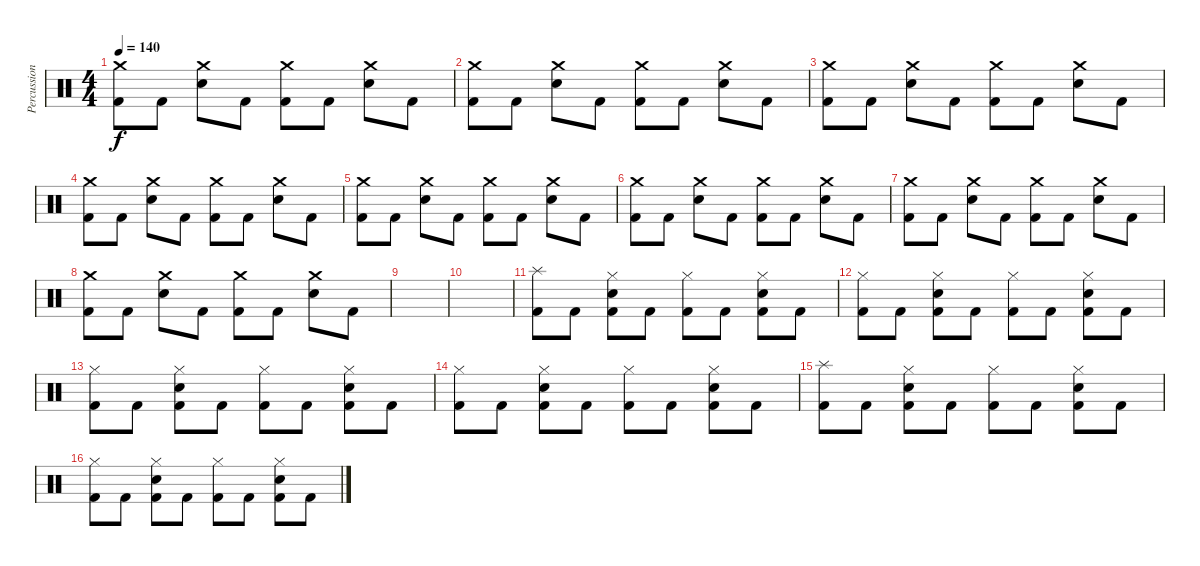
\track ("Percussion" "Percussion") {instrument percussion}
\staff {score}
\articulation defaults
\ts (4 4)
\tempo 140
\clef neutral
\ks c
("Crash medium (hit)" "Kick (hit) 2").8{dy f} "Kick (hit) 2".8 ("Crash medium (hit)" "Electric Snare (hit)").8 "Kick (hit) 2".8 ("Crash medium (hit)" "Kick (hit) 2").8 "Kick (hit) 2".8 ("Crash medium (hit)" "Electric Snare (hit)").8 "Kick (hit) 2".8 |
("Crash medium (hit)" "Kick (hit) 2").8 "Kick (hit) 2".8 ("Crash medium (hit)" "Electric Snare (hit)").8 "Kick (hit) 2".8 ("Crash medium (hit)" "Kick (hit) 2").8 "Kick (hit) 2".8 ("Crash medium (hit)" "Electric Snare (hit)").8 "Kick (hit) 2".8 |
("Crash medium (hit)" "Kick (hit) 2").8 "Kick (hit) 2".8 ("Crash medium (hit)" "Electric Snare (hit)").8 "Kick (hit) 2".8 ("Crash medium (hit)" "Kick (hit) 2").8 "Kick (hit) 2".8 ("Crash medium (hit)" "Electric Snare (hit)").8 "Kick (hit) 2".8 |
("Crash medium (hit)" "Kick (hit) 2").8 "Kick (hit) 2".8 ("Crash medium (hit)" "Electric Snare (hit)").8 "Kick (hit) 2".8 ("Crash medium (hit)" "Kick (hit) 2").8 "Kick (hit) 2".8 ("Crash medium (hit)" "Electric Snare (hit)").8 "Kick (hit) 2".8 |
("Crash medium (hit)" "Kick (hit) 2").8 "Kick (hit) 2".8 ("Crash medium (hit)" "Electric Snare (hit)").8 "Kick (hit) 2".8 ("Crash medium (hit)" "Kick (hit) 2").8 "Kick (hit) 2".8 ("Crash medium (hit)" "Electric Snare (hit)").8 "Kick (hit) 2".8 |
("Crash medium (hit)" "Kick (hit) 2").8 "Kick (hit) 2".8 ("Crash medium (hit)" "Electric Snare (hit)").8 "Kick (hit) 2".8 ("Crash medium (hit)" "Kick (hit) 2").8 "Kick (hit) 2".8 ("Crash medium (hit)" "Electric Snare (hit)").8 "Kick (hit) 2".8 |
("Crash medium (hit)" "Kick (hit) 2").8 "Kick (hit) 2".8 ("Crash medium (hit)" "Electric Snare (hit)").8 "Kick (hit) 2".8 ("Crash medium (hit)" "Kick (hit) 2").8 "Kick (hit) 2".8 ("Crash medium (hit)" "Electric Snare (hit)").8 "Kick (hit) 2".8 |
("Crash medium (hit)" "Kick (hit) 2").8 "Kick (hit) 2".8 ("Crash medium (hit)" "Electric Snare (hit)").8 "Kick (hit) 2".8 ("Crash medium (hit)" "Kick (hit) 2").8 "Kick (hit) 2".8 ("Crash medium (hit)" "Electric Snare (hit)").8 "Kick (hit) 2".8 |
|
|
("Splash (hit)" "Kick (hit) 2").8 "Kick (hit) 2".8 ("Hi-Hat (closed)" "Electric Snare (hit)" "Kick (hit) 2").8 "Kick (hit) 2".8 ("Hi-Hat (closed)" "Kick (hit) 2").8 "Kick (hit) 2".8 ("Hi-Hat (closed)" "Electric Snare (hit)" "Kick (hit) 2").8 "Kick (hit) 2".8 |
("Hi-Hat (closed)" "Kick (hit) 2").8 "Kick (hit) 2".8 ("Hi-Hat (closed)" "Electric Snare (hit)" "Kick (hit) 2").8 "Kick (hit) 2".8 ("Hi-Hat (closed)" "Kick (hit) 2").8 "Kick (hit) 2".8 ("Hi-Hat (closed)" "Electric Snare (hit)" "Kick (hit) 2").8 "Kick (hit) 2".8 |
("Hi-Hat (closed)" "Kick (hit) 2").8 "Kick (hit) 2".8 ("Hi-Hat (closed)" "Electric Snare (hit)" "Kick (hit) 2").8 "Kick (hit) 2".8 ("Hi-Hat (closed)" "Kick (hit) 2").8 "Kick (hit) 2".8 ("Hi-Hat (closed)" "Electric Snare (hit)" "Kick (hit) 2").8 "Kick (hit) 2".8 |
("Hi-Hat (closed)" "Kick (hit) 2").8 "Kick (hit) 2".8 ("Hi-Hat (closed)" "Electric Snare (hit)" "Kick (hit) 2").8 "Kick (hit) 2".8 ("Hi-Hat (closed)" "Kick (hit) 2").8 "Kick (hit) 2".8 ("Hi-Hat (closed)" "Electric Snare (hit)" "Kick (hit) 2").8 "Kick (hit) 2".8 |
("Splash (hit)" "Kick (hit) 2").8 "Kick (hit) 2".8 ("Hi-Hat (closed)" "Electric Snare (hit)" "Kick (hit) 2").8 "Kick (hit) 2".8 ("Hi-Hat (closed)" "Kick (hit) 2").8 "Kick (hit) 2".8 ("Hi-Hat (closed)" "Electric Snare (hit)" "Kick (hit) 2").8 "Kick (hit) 2".8 |
("Hi-Hat (closed)" "Kick (hit) 2").8 "Kick (hit) 2".8 ("Hi-Hat (closed)" "Electric Snare (hit)" "Kick (hit) 2").8 "Kick (hit) 2".8 ("Hi-Hat (closed)" "Kick (hit) 2").8 "Kick (hit) 2".8 ("Hi-Hat (closed)" "Electric Snare (hit)" "Kick (hit) 2").8 "Kick (hit) 2".8
